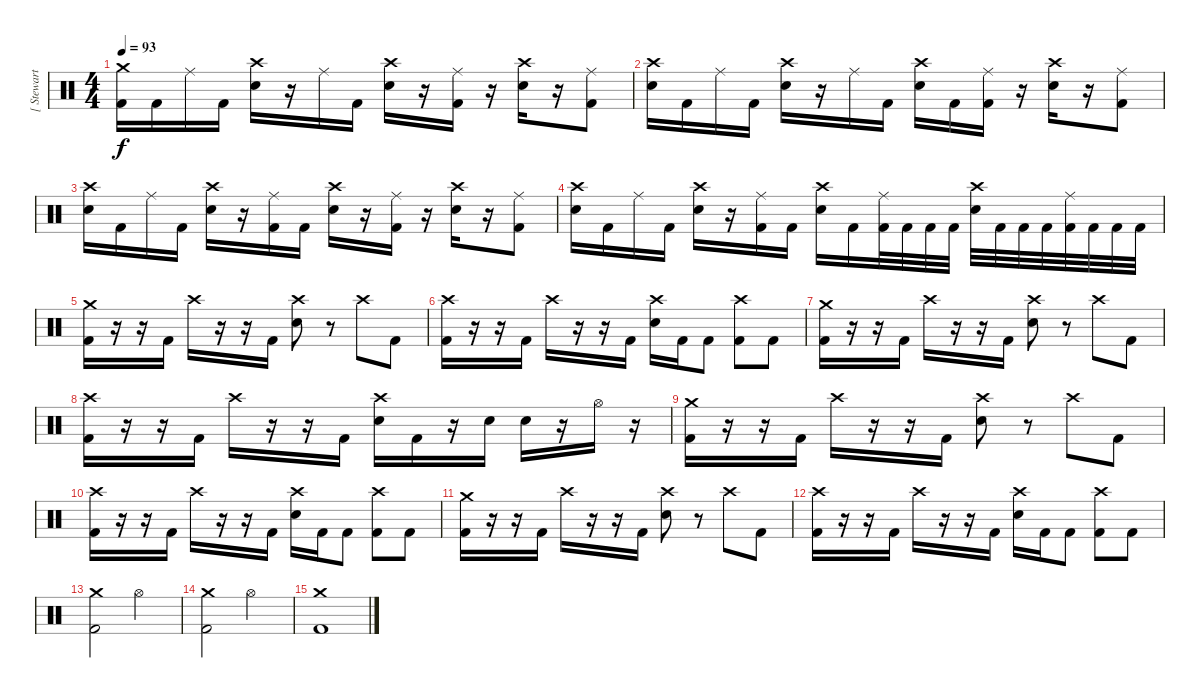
\track ("[ Stewart ]" "[ Stewart ") {instrument percussion}
\staff {score}
\articulation defaults
\ts (4 4)
\tempo 93
\clef neutral
\ks c
("Kick (hit) 2" "Crash medium (hit)").16{dy f} "Kick (hit) 2".16 "Ride (middle)".16 "Kick (hit) 2".16 ("Electric Snare (hit)" "Crash high (hit)").16 r.16 "Ride (middle)".16 "Kick (hit) 2".16 ("Electric Snare (hit)" "Crash high (hit)").16 r.16 ("Kick (hit) 2" "Ride (middle)").16 r.16 ("Electric Snare (hit)" "Crash high (hit)").16 r.16 ("Kick (hit) 2" "Ride (middle)").8 |
("Electric Snare (hit)" "Crash high (hit)").16 "Kick (hit) 2".16 "Ride (middle)".16 "Kick (hit) 2".16 ("Electric Snare (hit)" "Crash high (hit)").16 r.16 "Ride (middle)".16 "Kick (hit) 2".16 ("Electric Snare (hit)" "Crash high (hit)").16 "Kick (hit) 2".16 ("Kick (hit) 2" "Ride (middle)").16 r.16 ("Electric Snare (hit)" "Crash high (hit)").16 r.16 ("Kick (hit) 2" "Ride (middle)").8 |
("Electric Snare (hit)" "Crash high (hit)").16 "Kick (hit) 2".16 "Ride (middle)".16 "Kick (hit) 2".16 ("Electric Snare (hit)" "Crash high (hit)").16 r.16 ("Kick (hit) 2" "Ride (middle)").16 "Kick (hit) 2".16 ("Electric Snare (hit)" "Crash high (hit)").16 r.16 ("Kick (hit) 2" "Ride (middle)").16 r.16 ("Electric Snare (hit)" "Crash high (hit)").16 r.16 ("Kick (hit) 2" "Ride (middle)").8 |
("Electric Snare (hit)" "Crash high (hit)").16 "Kick (hit) 2".16 "Ride (middle)".16 "Kick (hit) 2".16 ("Electric Snare (hit)" "Crash high (hit)").16 r.16 ("Kick (hit) 2" "Ride (middle)").16 "Kick (hit) 2".16 ("Electric Snare (hit)" "Crash high (hit)").16 "Kick (hit) 2".16 ("Kick (hit) 2" "Ride (middle)").32 "Kick (hit) 2".32 "Kick (hit) 2".32 "Kick (hit) 2".32 ("Electric Snare (hit)" "Crash high (hit)").32 "Kick (hit) 2".32 "Kick (hit) 2".32 "Kick (hit) 2".32 ("Kick (hit) 2" "Ride (middle)").32 "Kick (hit) 2".32 "Kick (hit) 2".32 "Kick (hit) 2".32 |
("Kick (hit) 2" "Crash medium (hit)").16 r.16 r.16 "Kick (hit) 2".16 "Crash high (hit)".16 r.16 r.16 "Kick (hit) 2".16 ("Electric Snare (hit)" "Crash high (hit)").8 r.8 "Crash high (hit)".8 "Kick (hit) 2".8 |
("Kick (hit) 2" "Crash high (hit)").16 r.16 r.16 "Kick (hit) 2".16 "Crash high (hit)".16 r.16 r.16 "Kick (hit) 2".16 ("Electric Snare (hit)" "Crash high (hit)").16 "Kick (hit) 2".16 "Kick (hit) 2".8 ("Kick (hit) 2" "Crash high (hit)").8 "Kick (hit) 2".8 |
("Kick (hit) 2" "Crash medium (hit)").16 r.16 r.16 "Kick (hit) 2".16 "Crash high (hit)".16 r.16 r.16 "Kick (hit) 2".16 ("Electric Snare (hit)" "Crash high (hit)").8 r.8 "Crash high (hit)".8 "Kick (hit) 2".8 |
("Kick (hit) 2" "Crash high (hit)").16 r.16 r.16 "Kick (hit) 2".16 "Crash high (hit)".16 r.16 r.16 "Kick (hit) 2".16 ("Electric Snare (hit)" "Crash high (hit)").16 "Kick (hit) 2".16 r.16 "Electric Snare (hit)".16 "Electric Snare (hit)".16 r.16 "Hi-Hat (open)".16 r.16 |
("Kick (hit) 2" "Crash medium (hit)").16 r.16 r.16 "Kick (hit) 2".16 "Crash high (hit)".16 r.16 r.16 "Kick (hit) 2".16 ("Electric Snare (hit)" "Crash high (hit)").8 r.8 "Crash high (hit)".8 "Kick (hit) 2".8 |
("Kick (hit) 2" "Crash high (hit)").16 r.16 r.16 "Kick (hit) 2".16 "Crash high (hit)".16 r.16 r.16 "Kick (hit) 2".16 ("Electric Snare (hit)" "Crash high (hit)").16 "Kick (hit) 2".16 "Kick (hit) 2".8 ("Kick (hit) 2" "Crash high (hit)").8 "Kick (hit) 2".8 |
("Kick (hit) 2" "Crash medium (hit)").16 r.16 r.16 "Kick (hit) 2".16 "Crash high (hit)".16 r.16 r.16 "Kick (hit) 2".16 ("Electric Snare (hit)" "Crash high (hit)").8 r.8 "Crash high (hit)".8 "Kick (hit) 2".8 |
("Kick (hit) 2" "Crash high (hit)").16 r.16 r.16 "Kick (hit) 2".16 "Crash high (hit)".16 r.16 r.16 "Kick (hit) 2".16 ("Electric Snare (hit)" "Crash high (hit)").16 "Kick (hit) 2".16 "Kick (hit) 2".8 ("Kick (hit) 2" "Crash high (hit)").8 "Kick (hit) 2".8 |
("Kick (hit) 2" "Crash medium (hit)").2 "Hi-Hat (open)".2 |
("Kick (hit) 2" "Crash medium (hit)").2 "Hi-Hat (open)".2 |
("Kick (hit) 2" "Crash medium (hit)").1
